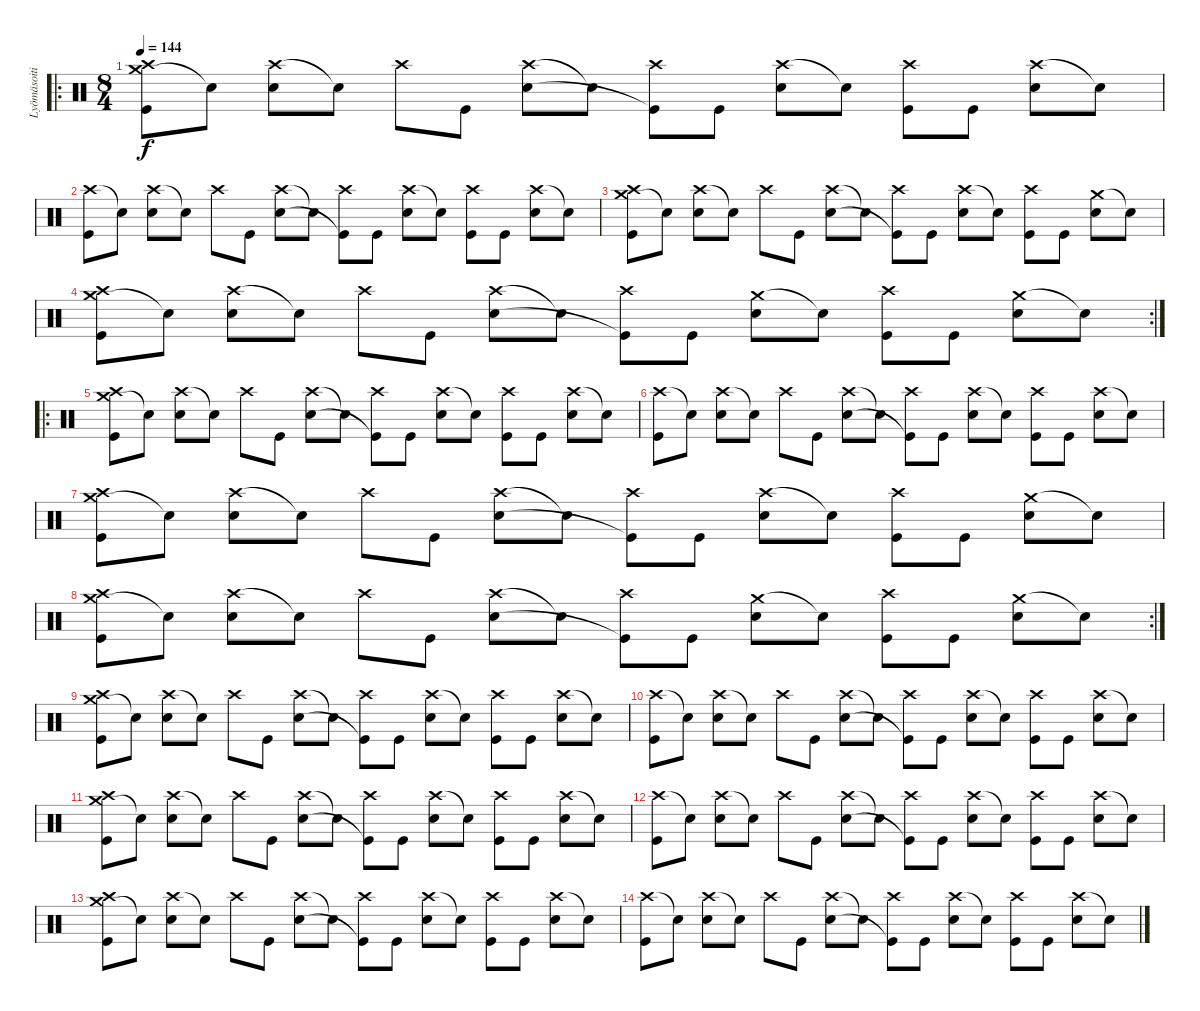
\track ("Lyömäsoitin" "Lyömäsoiti") {instrument percussion}
\staff {score}
\articulation defaults
\ro
\ts (8 4)
\tempo 144
\clef neutral
\ks c
("Crash medium (hit)" "Crash high (hit)" "Kick (hit)").8{dy f} "Snare (hit)"{t}.8 ("Crash high (hit)" "Snare (hit) 2").8 "Snare (hit)"{t}.8 "Crash high (hit)".8 "Kick (hit)".8 ("Crash high (hit)" "Snare (hit) 2").8 "Snare (hit)"{t}.8 ("Crash high (hit)" "Kick (hit)"{t}).8 "Kick (hit)".8 ("Crash high (hit)" "Snare (hit) 2").8 "Snare (hit)"{t}.8 ("Crash high (hit)" "Kick (hit)").8 "Kick (hit)".8 ("Crash high (hit)" "Snare (hit) 2").8 "Snare (hit)"{t}.8 |
("Crash high (hit)" "Kick (hit)").8 "Snare (hit)"{t}.8 ("Crash high (hit)" "Snare (hit) 2").8 "Snare (hit)"{t}.8 "Crash high (hit)".8 "Kick (hit)".8 ("Crash high (hit)" "Snare (hit) 2").8 "Snare (hit)"{t}.8 ("Crash high (hit)" "Kick (hit)"{t}).8 "Kick (hit)".8 ("Crash high (hit)" "Snare (hit) 2").8 "Snare (hit)"{t}.8 ("Crash high (hit)" "Kick (hit)").8 "Kick (hit)".8 ("Crash high (hit)" "Snare (hit) 2").8 "Snare (hit)"{t}.8 |
("Crash medium (hit)" "Crash high (hit)" "Kick (hit)").8 "Snare (hit)"{t}.8 ("Crash high (hit)" "Snare (hit) 2").8 "Snare (hit)"{t}.8 "Crash high (hit)".8 "Kick (hit)".8 ("Crash high (hit)" "Snare (hit) 2").8 "Snare (hit)"{t}.8 ("Crash high (hit)" "Kick (hit)"{t}).8 "Kick (hit)".8 ("Crash high (hit)" "Snare (hit) 2").8 "Snare (hit)"{t}.8 ("Crash high (hit)" "Kick (hit)").8 "Kick (hit)".8 ("Crash medium (hit)" "Snare (hit) 2").8 "Snare (hit)"{t}.8 |
\rc 2
("Crash medium (hit)" "Crash high (hit)" "Kick (hit)").8 "Snare (hit)"{t}.8 ("Crash high (hit)" "Snare (hit) 2").8 "Snare (hit)"{t}.8 "Crash high (hit)".8 "Kick (hit)".8 ("Crash high (hit)" "Snare (hit) 2").8 "Snare (hit)"{t}.8 ("Crash high (hit)" "Kick (hit)"{t}).8 "Kick (hit)".8 ("Crash medium (hit)" "Snare (hit) 2").8 "Snare (hit)"{t}.8 ("Crash high (hit)" "Kick (hit)").8 "Kick (hit)".8 ("Crash medium (hit)" "Snare (hit) 2").8 "Snare (hit)"{t}.8 |
\ro
("Crash medium (hit)" "Crash high (hit)" "Kick (hit)").8 "Snare (hit)"{t}.8 ("Crash high (hit)" "Snare (hit) 2").8 "Snare (hit)"{t}.8 "Crash high (hit)".8 "Kick (hit)".8 ("Crash high (hit)" "Snare (hit) 2").8 "Snare (hit)"{t}.8 ("Crash high (hit)" "Kick (hit)"{t}).8 "Kick (hit)".8 ("Crash high (hit)" "Snare (hit) 2").8 "Snare (hit)"{t}.8 ("Crash high (hit)" "Kick (hit)").8 "Kick (hit)".8 ("Crash high (hit)" "Snare (hit) 2").8 "Snare (hit)"{t}.8 |
("Crash high (hit)" "Kick (hit)").8 "Snare (hit)"{t}.8 ("Crash high (hit)" "Snare (hit) 2").8 "Snare (hit)"{t}.8 "Crash high (hit)".8 "Kick (hit)".8 ("Crash high (hit)" "Snare (hit) 2").8 "Snare (hit)"{t}.8 ("Crash high (hit)" "Kick (hit)"{t}).8 "Kick (hit)".8 ("Crash high (hit)" "Snare (hit) 2").8 "Snare (hit)"{t}.8 ("Crash high (hit)" "Kick (hit)").8 "Kick (hit)".8 ("Crash high (hit)" "Snare (hit) 2").8 "Snare (hit)"{t}.8 |
("Crash medium (hit)" "Crash high (hit)" "Kick (hit)").8 "Snare (hit)"{t}.8 ("Crash high (hit)" "Snare (hit) 2").8 "Snare (hit)"{t}.8 "Crash high (hit)".8 "Kick (hit)".8 ("Crash high (hit)" "Snare (hit) 2").8 "Snare (hit)"{t}.8 ("Crash high (hit)" "Kick (hit)"{t}).8 "Kick (hit)".8 ("Crash high (hit)" "Snare (hit) 2").8 "Snare (hit)"{t}.8 ("Crash high (hit)" "Kick (hit)").8 "Kick (hit)".8 ("Crash medium (hit)" "Snare (hit) 2").8 "Snare (hit)"{t}.8 |
\rc 2
("Crash medium (hit)" "Crash high (hit)" "Kick (hit)").8 "Snare (hit)"{t}.8 ("Crash high (hit)" "Snare (hit) 2").8 "Snare (hit)"{t}.8 "Crash high (hit)".8 "Kick (hit)".8 ("Crash high (hit)" "Snare (hit) 2").8 "Snare (hit)"{t}.8 ("Crash high (hit)" "Kick (hit)"{t}).8 "Kick (hit)".8 ("Crash medium (hit)" "Snare (hit) 2").8 "Snare (hit)"{t}.8 ("Crash high (hit)" "Kick (hit)").8 "Kick (hit)".8 ("Crash medium (hit)" "Snare (hit) 2").8 "Snare (hit)"{t}.8 |
("Crash medium (hit)" "Crash high (hit)" "Kick (hit)").8{volume 11} "Snare (hit)"{t}.8 ("Crash high (hit)" "Snare (hit) 2").8 "Snare (hit)"{t}.8 "Crash high (hit)".8 "Kick (hit)".8 ("Crash high (hit)" "Snare (hit) 2").8 "Snare (hit)"{t}.8 ("Crash high (hit)" "Kick (hit)"{t}).8 "Kick (hit)".8 ("Crash high (hit)" "Snare (hit) 2").8 "Snare (hit)"{t}.8 ("Crash high (hit)" "Kick (hit)").8 "Kick (hit)".8 ("Crash high (hit)" "Snare (hit) 2").8 "Snare (hit)"{t}.8 |
("Crash high (hit)" "Kick (hit)").8{volume 9} "Snare (hit)"{t}.8 ("Crash high (hit)" "Snare (hit) 2").8 "Snare (hit)"{t}.8 "Crash high (hit)".8 "Kick (hit)".8 ("Crash high (hit)" "Snare (hit) 2").8 "Snare (hit)"{t}.8 ("Crash high (hit)" "Kick (hit)"{t}).8 "Kick (hit)".8 ("Crash high (hit)" "Snare (hit) 2").8 "Snare (hit)"{t}.8 ("Crash high (hit)" "Kick (hit)").8 "Kick (hit)".8 ("Crash high (hit)" "Snare (hit) 2").8 "Snare (hit)"{t}.8 |
("Crash medium (hit)" "Crash high (hit)" "Kick (hit)").8{volume 7} "Snare (hit)"{t}.8 ("Crash high (hit)" "Snare (hit) 2").8 "Snare (hit)"{t}.8 "Crash high (hit)".8 "Kick (hit)".8 ("Crash high (hit)" "Snare (hit) 2").8 "Snare (hit)"{t}.8 ("Crash high (hit)" "Kick (hit)"{t}).8 "Kick (hit)".8 ("Crash high (hit)" "Snare (hit) 2").8 "Snare (hit)"{t}.8 ("Crash high (hit)" "Kick (hit)").8 "Kick (hit)".8 ("Crash high (hit)" "Snare (hit) 2").8 "Snare (hit)"{t}.8 |
("Crash high (hit)" "Kick (hit)").8{volume 5} "Snare (hit)"{t}.8 ("Crash high (hit)" "Snare (hit) 2").8 "Snare (hit)"{t}.8 "Crash high (hit)".8 "Kick (hit)".8 ("Crash high (hit)" "Snare (hit) 2").8 "Snare (hit)"{t}.8 ("Crash high (hit)" "Kick (hit)"{t}).8 "Kick (hit)".8 ("Crash high (hit)" "Snare (hit) 2").8 "Snare (hit)"{t}.8 ("Crash high (hit)" "Kick (hit)").8 "Kick (hit)".8 ("Crash high (hit)" "Snare (hit) 2").8 "Snare (hit)"{t}.8 |
("Crash medium (hit)" "Crash high (hit)" "Kick (hit)").8{volume 4} "Snare (hit)"{t}.8 ("Crash high (hit)" "Snare (hit) 2").8 "Snare (hit)"{t}.8 "Crash high (hit)".8 "Kick (hit)".8 ("Crash high (hit)" "Snare (hit) 2").8 "Snare (hit)"{t}.8 ("Crash high (hit)" "Kick (hit)"{t}).8 "Kick (hit)".8 ("Crash high (hit)" "Snare (hit) 2").8 "Snare (hit)"{t}.8 ("Crash high (hit)" "Kick (hit)").8 "Kick (hit)".8 ("Crash high (hit)" "Snare (hit) 2").8 "Snare (hit)"{t}.8 |
("Crash high (hit)" "Kick (hit)").8{volume 2} "Snare (hit)"{t}.8 ("Crash high (hit)" "Snare (hit) 2").8 "Snare (hit)"{t}.8 "Crash high (hit)".8 "Kick (hit)".8 ("Crash high (hit)" "Snare (hit) 2").8 "Snare (hit)"{t}.8 ("Crash high (hit)" "Kick (hit)"{t}).8 "Kick (hit)".8 ("Crash high (hit)" "Snare (hit) 2").8 "Snare (hit)"{t}.8 ("Crash high (hit)" "Kick (hit)").8 "Kick (hit)".8 ("Crash high (hit)" "Snare (hit) 2").8 "Snare (hit)"{t}.8
